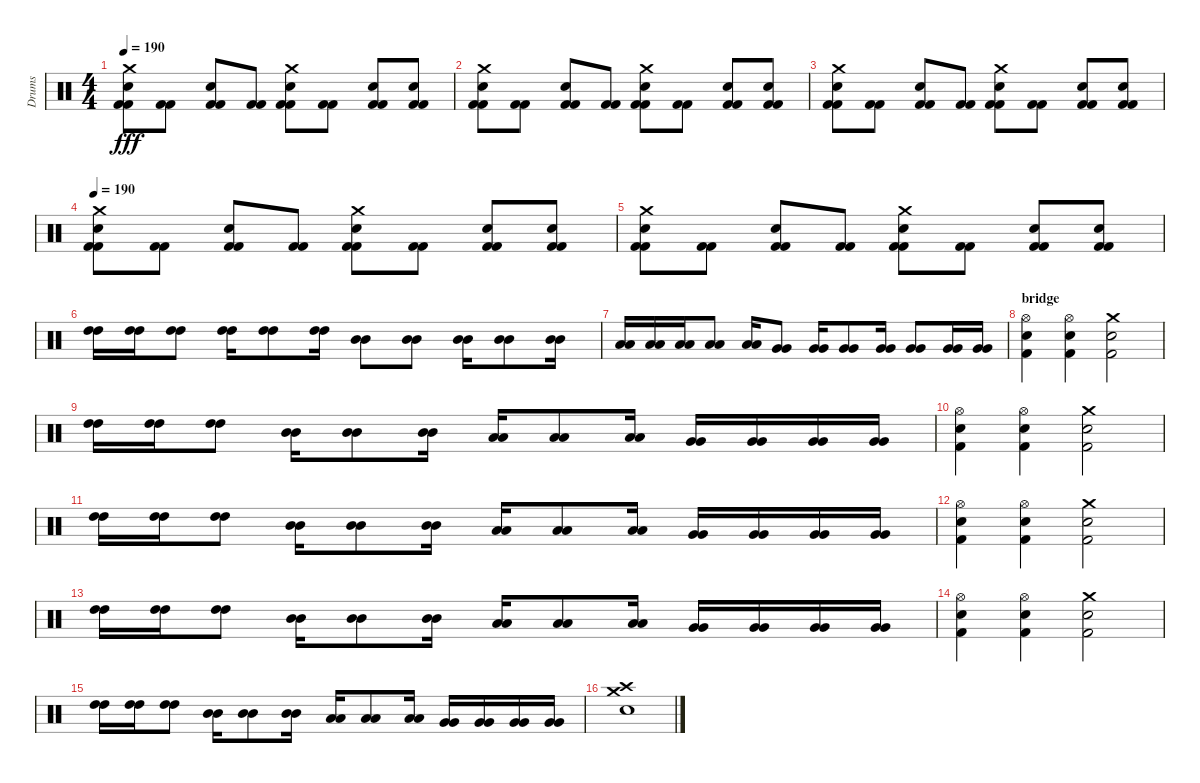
\track ("Drums" "Drums") {instrument percussion}
\staff {score}
\articulation defaults
\ts (4 4)
\tempo 190
\clef neutral
\ks c
("Kick (hit) 2" "Kick (hit) 2" "Electric Snare (hit)" "Crash medium (hit)").8{dy fff} ("Kick (hit) 2" "Kick (hit) 2").8 ("Kick (hit) 2" "Kick (hit) 2" "Electric Snare (hit)").8 ("Kick (hit) 2" "Kick (hit) 2").8 ("Kick (hit) 2" "Kick (hit) 2" "Electric Snare (hit)" "Crash medium (hit)").8 ("Kick (hit) 2" "Kick (hit) 2").8 ("Kick (hit) 2" "Kick (hit) 2" "Electric Snare (hit)").8 ("Kick (hit) 2" "Kick (hit) 2" "Electric Snare (hit)").8 |
("Kick (hit) 2" "Kick (hit) 2" "Electric Snare (hit)" "Crash medium (hit)").8 ("Kick (hit) 2" "Kick (hit) 2").8 ("Kick (hit) 2" "Kick (hit) 2" "Electric Snare (hit)").8 ("Kick (hit) 2" "Kick (hit) 2").8 ("Kick (hit) 2" "Kick (hit) 2" "Electric Snare (hit)" "Crash medium (hit)").8 ("Kick (hit) 2" "Kick (hit) 2").8 ("Kick (hit) 2" "Kick (hit) 2" "Electric Snare (hit)").8 ("Kick (hit) 2" "Kick (hit) 2" "Electric Snare (hit)").8 |
("Kick (hit) 2" "Kick (hit) 2" "Electric Snare (hit)" "Crash medium (hit)").8 ("Kick (hit) 2" "Kick (hit) 2").8 ("Kick (hit) 2" "Kick (hit) 2" "Electric Snare (hit)").8 ("Kick (hit) 2" "Kick (hit) 2").8 ("Kick (hit) 2" "Kick (hit) 2" "Electric Snare (hit)" "Crash medium (hit)").8 ("Kick (hit) 2" "Kick (hit) 2").8 ("Kick (hit) 2" "Kick (hit) 2" "Electric Snare (hit)").8 ("Kick (hit) 2" "Kick (hit) 2" "Electric Snare (hit)").8 |
\tempo 190
("Kick (hit) 2" "Kick (hit) 2" "Electric Snare (hit)" "Crash medium (hit)").8 ("Kick (hit) 2" "Kick (hit) 2").8 ("Kick (hit) 2" "Kick (hit) 2" "Electric Snare (hit)").8 ("Kick (hit) 2" "Kick (hit) 2").8 ("Kick (hit) 2" "Kick (hit) 2" "Electric Snare (hit)" "Crash medium (hit)").8 ("Kick (hit) 2" "Kick (hit) 2").8 ("Kick (hit) 2" "Kick (hit) 2" "Electric Snare (hit)").8 ("Kick (hit) 2" "Kick (hit) 2" "Electric Snare (hit)").8 |
("Kick (hit) 2" "Kick (hit) 2" "Electric Snare (hit)" "Crash medium (hit)").8 ("Kick (hit) 2" "Kick (hit) 2").8 ("Kick (hit) 2" "Kick (hit) 2" "Electric Snare (hit)").8 ("Kick (hit) 2" "Kick (hit) 2").8 ("Kick (hit) 2" "Kick (hit) 2" "Electric Snare (hit)" "Crash medium (hit)").8 ("Kick (hit) 2" "Kick (hit) 2").8 ("Kick (hit) 2" "Kick (hit) 2" "Electric Snare (hit)").8 ("Kick (hit) 2" "Kick (hit) 2" "Electric Snare (hit)").8 |
("High Tom (hit)" "High Tom (hit)").16 ("High Tom (hit)" "High Tom (hit)").16 ("High Tom (hit)" "High Tom (hit)").8 ("High Tom (hit)" "High Tom (hit)").16 ("High Tom (hit)" "High Tom (hit)").8 ("High Tom (hit)" "High Tom (hit)").16 ("Mid Tom (hit)" "Mid Tom (hit)").8 ("Mid Tom (hit)" "Mid Tom (hit)").8 ("Mid Tom (hit)" "Mid Tom (hit)").16 ("Mid Tom (hit)" "Mid Tom (hit)").8 ("Mid Tom (hit)" "Mid Tom (hit)").16 |
("Low Tom (hit)" "Low Tom (hit)").16 ("Low Tom (hit)" "Low Tom (hit)").16 ("Low Tom (hit)" "Low Tom (hit)").16 ("Low Tom (hit)" "Low Tom (hit)").8 ("Low Tom (hit)" "Low Tom (hit)").16 ("Very Low Tom (hit)" "Very Low Tom (hit)").8 ("Very Low Tom (hit)" "Very Low Tom (hit)").16 ("Very Low Tom (hit)" "Very Low Tom (hit)").8 ("Very Low Tom (hit)" "Very Low Tom (hit)").16 ("Very Low Tom (hit)" "Very Low Tom (hit)").8 ("Very Low Tom (hit)" "Very Low Tom (hit)").16 ("Very Low Tom (hit)" "Very Low Tom (hit)").16 |
\section ("" "bridge")
("Electric Snare (hit)" "Kick (hit) 2" "Hi-Hat (open)").4 ("Electric Snare (hit)" "Kick (hit) 2" "Hi-Hat (open)").4 ("Electric Snare (hit)" "Kick (hit) 2" "Crash medium (hit)").2 |
("High Tom (hit)" "High Tom (hit)").16 ("High Tom (hit)" "High Tom (hit)").16 ("High Tom (hit)" "High Tom (hit)").8 ("Mid Tom (hit)" "Mid Tom (hit)").16 ("Mid Tom (hit)" "Mid Tom (hit)").8 ("Mid Tom (hit)" "Mid Tom (hit)").16 ("Low Tom (hit)" "Low Tom (hit)").16 ("Low Tom (hit)" "Low Tom (hit)").8 ("Low Tom (hit)" "Low Tom (hit)").16 ("Very Low Tom (hit)" "Very Low Tom (hit)").16 ("Very Low Tom (hit)" "Very Low Tom (hit)").16 ("Very Low Tom (hit)" "Very Low Tom (hit)").16 ("Very Low Tom (hit)" "Very Low Tom (hit)").16 |
("Electric Snare (hit)" "Kick (hit) 2" "Hi-Hat (open)").4 ("Electric Snare (hit)" "Kick (hit) 2" "Hi-Hat (open)").4 ("Electric Snare (hit)" "Kick (hit) 2" "Crash medium (hit)").2 |
("High Tom (hit)" "High Tom (hit)").16 ("High Tom (hit)" "High Tom (hit)").16 ("High Tom (hit)" "High Tom (hit)").8 ("Mid Tom (hit)" "Mid Tom (hit)").16 ("Mid Tom (hit)" "Mid Tom (hit)").8 ("Mid Tom (hit)" "Mid Tom (hit)").16 ("Low Tom (hit)" "Low Tom (hit)").16 ("Low Tom (hit)" "Low Tom (hit)").8 ("Low Tom (hit)" "Low Tom (hit)").16 ("Very Low Tom (hit)" "Very Low Tom (hit)").16 ("Very Low Tom (hit)" "Very Low Tom (hit)").16 ("Very Low Tom (hit)" "Very Low Tom (hit)").16 ("Very Low Tom (hit)" "Very Low Tom (hit)").16 |
("Electric Snare (hit)" "Kick (hit) 2" "Hi-Hat (open)").4 ("Electric Snare (hit)" "Kick (hit) 2" "Hi-Hat (open)").4 ("Electric Snare (hit)" "Kick (hit) 2" "Crash medium (hit)").2 |
("High Tom (hit)" "High Tom (hit)").16 ("High Tom (hit)" "High Tom (hit)").16 ("High Tom (hit)" "High Tom (hit)").8 ("Mid Tom (hit)" "Mid Tom (hit)").16 ("Mid Tom (hit)" "Mid Tom (hit)").8 ("Mid Tom (hit)" "Mid Tom (hit)").16 ("Low Tom (hit)" "Low Tom (hit)").16 ("Low Tom (hit)" "Low Tom (hit)").8 ("Low Tom (hit)" "Low Tom (hit)").16 ("Very Low Tom (hit)" "Very Low Tom (hit)").16 ("Very Low Tom (hit)" "Very Low Tom (hit)").16 ("Very Low Tom (hit)" "Very Low Tom (hit)").16 ("Very Low Tom (hit)" "Very Low Tom (hit)").16 |
("Electric Snare (hit)" "Kick (hit) 2" "Hi-Hat (open)").4 ("Electric Snare (hit)" "Kick (hit) 2" "Hi-Hat (open)").4 ("Electric Snare (hit)" "Kick (hit) 2" "Crash medium (hit)").2 |
("High Tom (hit)" "High Tom (hit)").16 ("High Tom (hit)" "High Tom (hit)").16 ("High Tom (hit)" "High Tom (hit)").8 ("Mid Tom (hit)" "Mid Tom (hit)").16 ("Mid Tom (hit)" "Mid Tom (hit)").8 ("Mid Tom (hit)" "Mid Tom (hit)").16 ("Low Tom (hit)" "Low Tom (hit)").16 ("Low Tom (hit)" "Low Tom (hit)").8 ("Low Tom (hit)" "Low Tom (hit)").16 ("Very Low Tom (hit)" "Very Low Tom (hit)").16 ("Very Low Tom (hit)" "Very Low Tom (hit)").16 ("Very Low Tom (hit)" "Very Low Tom (hit)").16 ("Very Low Tom (hit)" "Very Low Tom (hit)").16 |
("Crash high (hit)" "Crash medium (hit)" "Electric Snare (hit)").1
